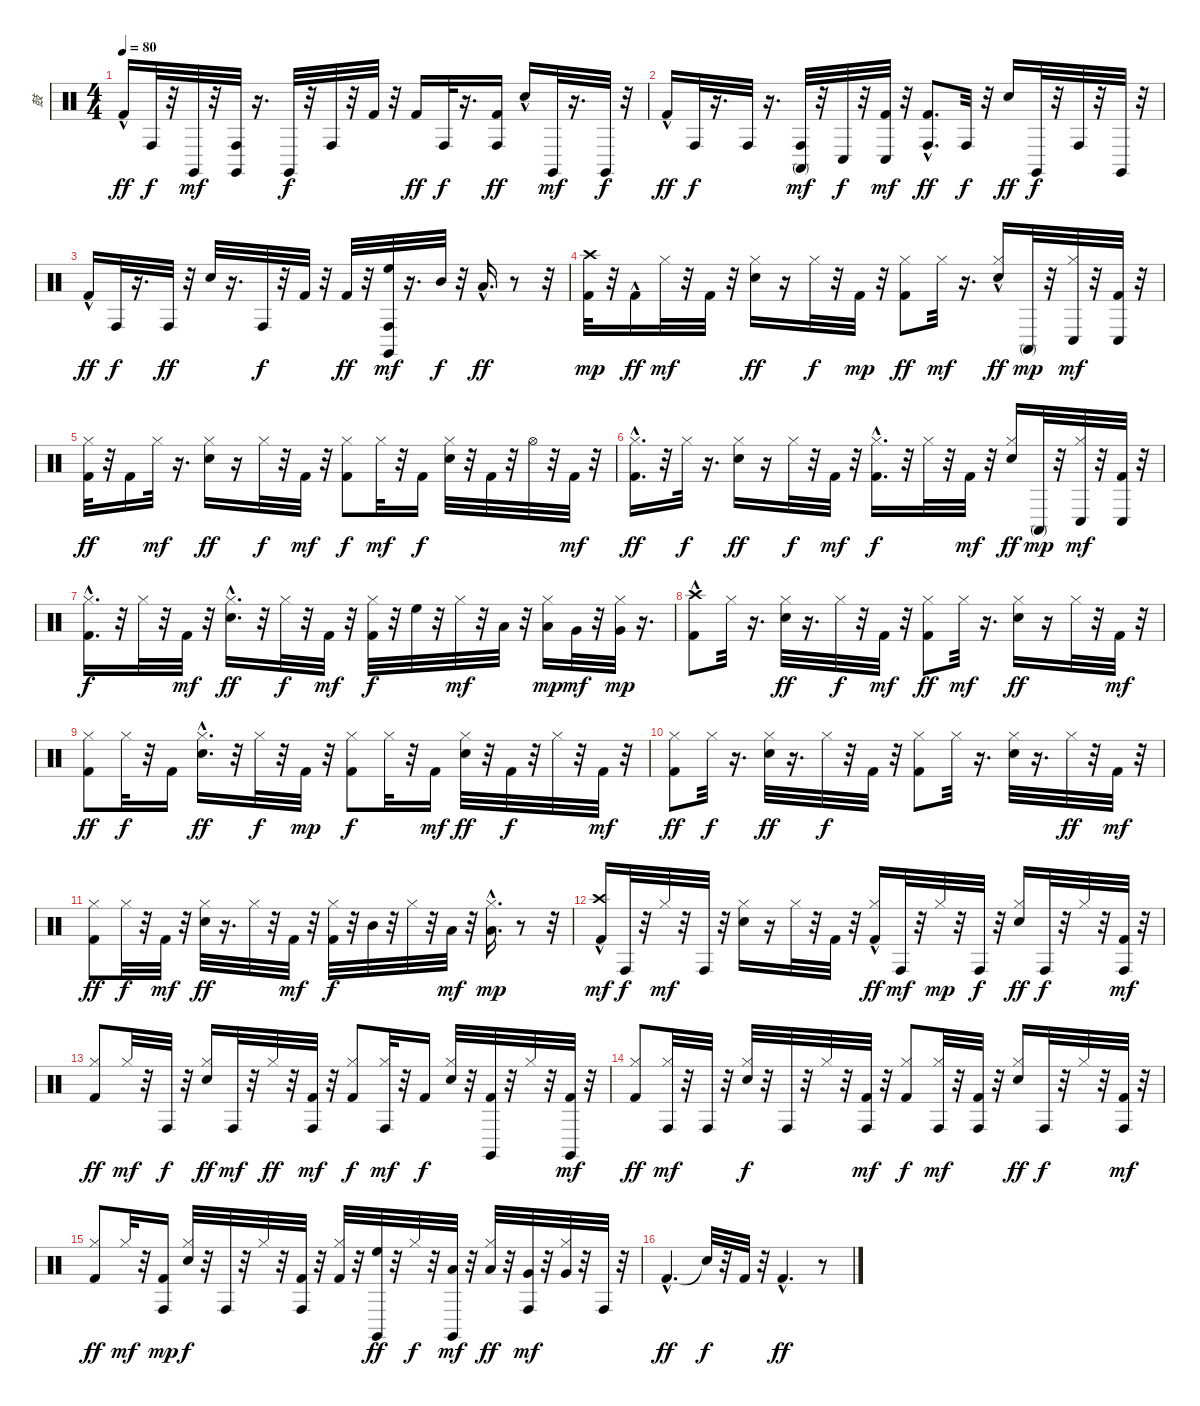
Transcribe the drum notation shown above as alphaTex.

\track ("鼓" "鼓") {instrument percussion}
\staff {score}
\articulation defaults
\ts (4 4)
\tempo 80
\clef neutral
\ks c "Kick (hit) 2"{hac}.16{dy ff} "Conga high (hit)".32{dy f}
r.32 "Claves (hit)".32{dy mf} r.32 ("Conga high (hit)" "Claves (hit)").32 r.16{d} "Claves (hit)".32{dy f} r.32 "Conga high (hit)".32 r.32 "Kick (hit) 2".32 r.32 "Kick (hit) 2".16{dy ff} "Conga high (hit)".32{dy f} r.16{d} ("Kick (hit) 2" "Conga high (hit)").16{dy ff} "Hand Clap (hit)"{hac}.16 "Claves (hit)".32{dy mf} r.16{d} "Claves (hit)".32{dy f} r.32 |
"Kick (hit) 2"{hac}.16{dy ff} "Conga high (hit)".32{dy f} r.16{d} "Conga high (hit)".32 r.16{d} ("Conga high (hit)" "Conga high (mute)").32{dy mf} r.32 "Conga low (hit)".32{dy f} r.32 ("Kick (hit) 2" "Conga low (hit)").32{dy mf} r.32 ("Kick (hit) 2"{hac} "Conga high (hit)").8{d dy ff} "Conga high (hit)".32{dy f} r.32 "Hand Clap (hit)".16{dy ff} "Claves (hit)".32{dy f} r.32 "Conga high (hit)".32 r.32 "Claves (hit)".32 r.32 |
"Kick (hit) 2"{hac}.16{dy ff} "Conga high (hit)".32{dy f} r.16{d} "Conga high (hit)".32{dy ff} r.32 "Hand Clap (hit)".32 r.16{d} "Conga high (hit)".32{dy f} r.32 "Kick (hit) 2".32 r.32 "Kick (hit) 2".32{dy ff} r.32 ("High Floor Tom (hit)" "Conga high (hit)" "Claves (hit)").32{dy mf} r.16{d} "Mid Tom (hit)".32{dy f} r.32 "Low Tom (hit)"{hac}.16{d dy ff} r.8 r.32 |
("Kick (hit) 2" "Crash high (hit)").32{dy mp} r.32 "Kick (hit) 2"{hac}.16{dy ff} "Hi-Hat (closed)".32{dy mf} r.32 "Kick (hit) 2".32 r.32 ("Electric Snare (hit)" "Hi-Hat (closed)").16{dy ff} r.16 "Hi-Hat (closed)".32{dy f} r.32 "Kick (hit) 2".32{dy mp} r.32 ("Kick (hit) 2" "Hi-Hat (closed)").8{dy ff} "Hi-Hat (closed)".32{dy mf} r.16{d} ("Electric Snare (hit)"{hac} "Hi-Hat (closed)").16{dy ff} "Conga high (mute)".32{dy mp} r.32 ("Hi-Hat (closed)" "Conga low (hit)").32{dy mf} r.32 ("Kick (hit) 2" "Conga low (hit)").32 r.32 |
("Kick (hit) 2" "Hi-Hat (closed)").32{dy ff} r.32 "Kick (hit) 2".16 "Hi-Hat (closed)".32{dy mf} r.16{d} ("Electric Snare (hit)" "Hi-Hat (closed)").16{dy ff} r.16 "Hi-Hat (closed)".32{dy f} r.32 "Kick (hit) 2".32{dy mf} r.32 ("Kick (hit) 2" "Hi-Hat (closed)").8{dy f} "Hi-Hat (closed)".32{dy mf} r.32 "Kick (hit) 2".16{dy f} ("Electric Snare (hit)" "Hi-Hat (closed)").32 r.32 "Kick (hit) 2".32 r.32 "Hi-Hat (open)".32 r.32 "Kick (hit) 2".32{dy mf} r.32 |
("Kick (hit) 2"{hac} "Hi-Hat (closed)").16{d dy ff} r.32 "Hi-Hat (closed)".32{dy f} r.16{d} ("Electric Snare (hit)" "Hi-Hat (closed)").16{dy ff} r.16 "Hi-Hat (closed)".32{dy f} r.32 "Kick (hit) 2".32{dy mf} r.32 ("Kick (hit) 2"{hac} "Hi-Hat (closed)").16{d dy f} r.32 "Hi-Hat (closed)".32 r.32 "Kick (hit) 2".32{dy mf} r.32 ("Electric Snare (hit)" "Hi-Hat (closed)").16{dy ff} "Conga high (mute)".32{dy mp} r.32 ("Hi-Hat (closed)" "Conga low (hit)").32{dy mf} r.32 ("Kick (hit) 2" "Conga low (hit)").32 r.32 |
("Kick (hit) 2"{hac} "Hi-Hat (closed)").16{d dy f} r.32 "Hi-Hat (closed)".32 r.32 "Kick (hit) 2".32{dy mf} r.32 ("Electric Snare (hit)"{hac} "Hi-Hat (closed)").16{d dy ff} r.32 "Hi-Hat (closed)".32{dy f} r.32 "Kick (hit) 2".32{dy mf} r.32 ("Kick (hit) 2" "Hi-Hat (closed)").32{dy f} r.32 "High Floor Tom (hit)".32 r.32 "Hi-Hat (closed)".32{dy mf} r.32 "Low Tom (hit)".32 r.32 ("Low Tom (hit)" "Hi-Hat (closed)").16{dy mp} "Very Low Tom (hit)".32{dy mf} r.32 ("Very Low Tom (hit)" "Hi-Hat (closed)").32{dy mp} r.16{d} |
("Kick (hit) 2"{hac} "Crash high (hit)").8 "Hi-Hat (closed)".32 r.16{d} ("Electric Snare (hit)" "Hi-Hat (closed)").32{dy ff} r.16{d} "Hi-Hat (closed)".32{dy f} r.32 "Kick (hit) 2".32{dy mf} r.32 ("Kick (hit) 2" "Hi-Hat (closed)").8{dy ff} "Hi-Hat (closed)".32{dy mf} r.16{d} ("Electric Snare (hit)" "Hi-Hat (closed)").16{dy ff} r.16 "Hi-Hat (closed)".32 r.32 "Kick (hit) 2".32{dy mf} r.32 |
("Kick (hit) 2" "Hi-Hat (closed)").8{dy ff} "Hi-Hat (closed)".32{dy f} r.32 "Kick (hit) 2".16 ("Electric Snare (hit)"{hac} "Hi-Hat (closed)").16{d dy ff} r.32 "Hi-Hat (closed)".32{dy f} r.32 "Kick (hit) 2".32{dy mp} r.32 ("Kick (hit) 2" "Hi-Hat (closed)").8{dy f} "Hi-Hat (closed)".32 r.32 "Kick (hit) 2".16{dy mf} ("Electric Snare (hit)" "Hi-Hat (closed)").32{dy ff} r.32 "Kick (hit) 2".32{dy f} r.32 "Hi-Hat (closed)".32 r.32 "Kick (hit) 2".32{dy mf} r.32 |
("Kick (hit) 2" "Hi-Hat (closed)").8{dy ff} "Hi-Hat (closed)".32{dy f} r.16{d} ("Electric Snare (hit)" "Hi-Hat (closed)").32{dy ff} r.16{d} "Hi-Hat (closed)".32{dy f} r.32 "Kick (hit) 2".32 r.32 ("Kick (hit) 2" "Hi-Hat (closed)").8 "Hi-Hat (closed)".32 r.16{d} ("Electric Snare (hit)" "Hi-Hat (closed)").32 r.16{d} "Hi-Hat (closed)".32{dy ff} r.32 "Kick (hit) 2".32{dy mf} r.32 |
("Kick (hit) 2" "Hi-Hat (closed)").8{dy ff} "Hi-Hat (closed)".32{dy f} r.32 "Kick (hit) 2".32{dy mf} r.32 ("Electric Snare (hit)" "Hi-Hat (closed)").32{dy ff} r.16{d} "Hi-Hat (closed)".32 r.32 "Kick (hit) 2".32{dy mf} r.32 ("Kick (hit) 2" "Hi-Hat (closed)").32{dy f} r.32 "Mid Tom (hit)".32 r.32 "Hi-Hat (closed)".32 r.32 "Low Tom (hit)".32{dy mf} r.32 ("Low Tom (hit)"{hac} "Hi-Hat (closed)").16{d dy mp} r.8 r.32 |
("Kick (hit) 2"{hac} "Crash high (hit)").16{dy mf} "Conga high (hit)".32{dy f} r.32 "Hi-Hat (closed)".32{dy mf} r.32 "Conga high (hit)".32 r.32 ("Electric Snare (hit)" "Hi-Hat (closed)").16 r.16 "Hi-Hat (closed)".32 r.32 "Kick (hit) 2".32 r.32 ("Kick (hit) 2"{hac} "Hi-Hat (closed)").16{dy ff} "Conga high (hit)".32{dy mf} r.32 "Hi-Hat (closed)".32{dy mp} r.32 "Conga high (hit)".32{dy f} r.32 ("Electric Snare (hit)" "Hi-Hat (closed)").16{dy ff} "Conga high (hit)".32{dy f} r.32 "Hi-Hat (closed)".32 r.32 ("Kick (hit) 2" "Conga high (hit)").32{dy mf} r.32 |
("Kick (hit) 2" "Hi-Hat (closed)").8{dy ff} "Hi-Hat (closed)".32{dy mf} r.32 "Conga high (hit)".32{dy f} r.32 ("Electric Snare (hit)" "Hi-Hat (closed)").16{dy ff} "Conga high (hit)".32{dy mf} r.32 "Hi-Hat (closed)".32{dy ff} r.32 ("Kick (hit) 2" "Conga high (hit)").32{dy mf} r.32 ("Kick (hit) 2" "Hi-Hat (closed)").8{dy f} ("Hi-Hat (closed)" "Conga high (hit)").32{dy mf} r.32 "Kick (hit) 2".16{dy f} ("Electric Snare (hit)" "Hi-Hat (closed)").32 r.32 ("Kick (hit) 2" "Claves (hit)").32 r.32 "Hi-Hat (closed)".32 r.32 ("Kick (hit) 2" "Claves (hit)").32{dy mf} r.32 |
("Kick (hit) 2" "Hi-Hat (closed)").8{dy ff} ("Hi-Hat (closed)" "Conga high (hit)").32{dy mf} r.32 "Conga high (hit)".32 r.32 ("Electric Snare (hit)" "Hi-Hat (closed)").32{dy f} r.32 "Conga high (hit)".32 r.32 "Hi-Hat (closed)".32 r.32 ("Kick (hit) 2" "Conga high (hit)").32{dy mf} r.32 ("Kick (hit) 2" "Hi-Hat (closed)").8{dy f} ("Hi-Hat (closed)" "Conga high (hit)").32{dy mf} r.32 ("Kick (hit) 2" "Conga high (hit)").32 r.32 ("Electric Snare (hit)" "Hi-Hat (closed)").16{dy ff} "Conga high (hit)".32{dy f} r.32 "Hi-Hat (closed)".32 r.32 ("Kick (hit) 2" "Conga high (hit)").32{dy mf} r.32 |
("Kick (hit) 2" "Hi-Hat (closed)").8{dy ff} "Hi-Hat (closed)".32{dy mf} r.32 ("Kick (hit) 2" "Conga high (hit)").16{dy mp} ("Electric Snare (hit)" "Hi-Hat (closed)").32{dy f} r.32 "Conga high (hit)".32 r.32 "Hi-Hat (closed)".32 r.32 ("Kick (hit) 2" "Conga high (hit)").32 r.32 ("Kick (hit) 2" "Hi-Hat (closed)").32 r.32 ("High Floor Tom (hit)" "Claves (hit)").32{dy ff} r.32 "Hi-Hat (closed)".32{dy f} r.32 ("Low Tom (hit)" "Claves (hit)").32{dy mf} r.32 ("Low Tom (hit)" "Hi-Hat (closed)").32{dy ff} r.32 ("Very Low Tom (hit)" "Conga high (hit)").32{dy mf} r.32 ("Very Low Tom (hit)" "Hi-Hat (closed)").32 r.32 "Conga high (hit)".32 r.32 |
"Kick (hit) 2"{hac}.4{d dy ff} "Snare (hit)"{t}.32{dy f} r.32 "Kick (hit) 2".32 r.32 "Kick (hit) 2"{hac}.4{d dy ff} r.8
